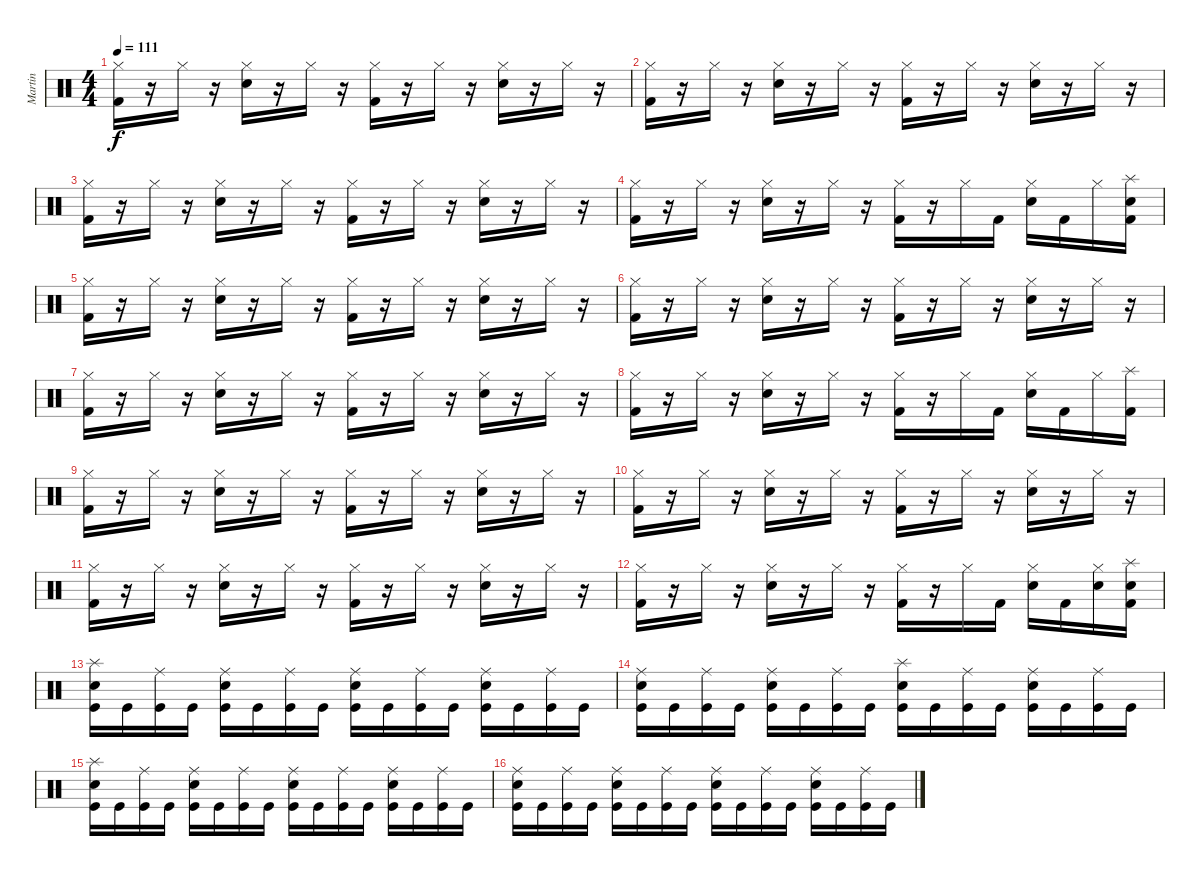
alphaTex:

\track ("Martin" "Martin") {instrument percussion}
\staff {score}
\articulation defaults
\ts (4 4)
\tempo 111
\clef neutral
\ks c
("Kick (hit) 2" "Hi-Hat (closed)").16{dy f} r.16 "Hi-Hat (closed)".16 r.16 ("Electric Snare (hit)" "Hi-Hat (closed)").16 r.16 "Hi-Hat (closed)".16 r.16 ("Kick (hit) 2" "Hi-Hat (closed)").16 r.16 "Hi-Hat (closed)".16 r.16 ("Electric Snare (hit)" "Hi-Hat (closed)").16 r.16 "Hi-Hat (closed)".16 r.16 |
("Kick (hit) 2" "Hi-Hat (closed)").16 r.16 "Hi-Hat (closed)".16 r.16 ("Electric Snare (hit)" "Hi-Hat (closed)").16 r.16 "Hi-Hat (closed)".16 r.16 ("Kick (hit) 2" "Hi-Hat (closed)").16 r.16 "Hi-Hat (closed)".16 r.16 ("Electric Snare (hit)" "Hi-Hat (closed)").16 r.16 "Hi-Hat (closed)".16 r.16 |
("Kick (hit) 2" "Hi-Hat (closed)").16 r.16 "Hi-Hat (closed)".16 r.16 ("Electric Snare (hit)" "Hi-Hat (closed)").16 r.16 "Hi-Hat (closed)".16 r.16 ("Kick (hit) 2" "Hi-Hat (closed)").16 r.16 "Hi-Hat (closed)".16 r.16 ("Electric Snare (hit)" "Hi-Hat (closed)").16 r.16 "Hi-Hat (closed)".16 r.16 |
("Kick (hit) 2" "Hi-Hat (closed)").16 r.16 "Hi-Hat (closed)".16 r.16 ("Electric Snare (hit)" "Hi-Hat (closed)").16 r.16 "Hi-Hat (closed)".16 r.16 ("Kick (hit) 2" "Hi-Hat (closed)").16 r.16 "Hi-Hat (closed)".16 "Kick (hit) 2".16 ("Electric Snare (hit)" "Hi-Hat (closed)").16 "Kick (hit) 2".16 "Hi-Hat (closed)".16 ("Kick (hit) 2" "Electric Snare (hit)" "Splash (hit)").16 |
("Kick (hit) 2" "Hi-Hat (closed)").16 r.16 "Hi-Hat (closed)".16 r.16 ("Electric Snare (hit)" "Hi-Hat (closed)").16 r.16 "Hi-Hat (closed)".16 r.16 ("Kick (hit) 2" "Hi-Hat (closed)").16 r.16 "Hi-Hat (closed)".16 r.16 ("Electric Snare (hit)" "Hi-Hat (closed)").16 r.16 "Hi-Hat (closed)".16 r.16 |
("Kick (hit) 2" "Hi-Hat (closed)").16 r.16 "Hi-Hat (closed)".16 r.16 ("Electric Snare (hit)" "Hi-Hat (closed)").16 r.16 "Hi-Hat (closed)".16 r.16 ("Kick (hit) 2" "Hi-Hat (closed)").16 r.16 "Hi-Hat (closed)".16 r.16 ("Electric Snare (hit)" "Hi-Hat (closed)").16 r.16 "Hi-Hat (closed)".16 r.16 |
("Kick (hit) 2" "Hi-Hat (closed)").16 r.16 "Hi-Hat (closed)".16 r.16 ("Electric Snare (hit)" "Hi-Hat (closed)").16 r.16 "Hi-Hat (closed)".16 r.16 ("Kick (hit) 2" "Hi-Hat (closed)").16 r.16 "Hi-Hat (closed)".16 r.16 ("Electric Snare (hit)" "Hi-Hat (closed)").16 r.16 "Hi-Hat (closed)".16 r.16 |
("Kick (hit) 2" "Hi-Hat (closed)").16 r.16 "Hi-Hat (closed)".16 r.16 ("Electric Snare (hit)" "Hi-Hat (closed)").16 r.16 "Hi-Hat (closed)".16 r.16 ("Kick (hit) 2" "Hi-Hat (closed)").16 r.16 "Hi-Hat (closed)".16 "Kick (hit) 2".16 ("Electric Snare (hit)" "Hi-Hat (closed)").16 "Kick (hit) 2".16 "Hi-Hat (closed)".16 ("Kick (hit) 2" "Splash (hit)").16 |
("Kick (hit) 2" "Hi-Hat (closed)").16 r.16 "Hi-Hat (closed)".16 r.16 ("Electric Snare (hit)" "Hi-Hat (closed)").16 r.16 "Hi-Hat (closed)".16 r.16 ("Kick (hit) 2" "Hi-Hat (closed)").16 r.16 "Hi-Hat (closed)".16 r.16 ("Electric Snare (hit)" "Hi-Hat (closed)").16 r.16 "Hi-Hat (closed)".16 r.16 |
("Kick (hit) 2" "Hi-Hat (closed)").16 r.16 "Hi-Hat (closed)".16 r.16 ("Electric Snare (hit)" "Hi-Hat (closed)").16 r.16 "Hi-Hat (closed)".16 r.16 ("Kick (hit) 2" "Hi-Hat (closed)").16 r.16 "Hi-Hat (closed)".16 r.16 ("Electric Snare (hit)" "Hi-Hat (closed)").16 r.16 "Hi-Hat (closed)".16 r.16 |
("Kick (hit) 2" "Hi-Hat (closed)").16 r.16 "Hi-Hat (closed)".16 r.16 ("Electric Snare (hit)" "Hi-Hat (closed)").16 r.16 "Hi-Hat (closed)".16 r.16 ("Kick (hit) 2" "Hi-Hat (closed)").16 r.16 "Hi-Hat (closed)".16 r.16 ("Electric Snare (hit)" "Hi-Hat (closed)").16 r.16 "Hi-Hat (closed)".16 r.16 |
("Kick (hit) 2" "Hi-Hat (closed)").16 r.16 "Hi-Hat (closed)".16 r.16 ("Electric Snare (hit)" "Hi-Hat (closed)").16 r.16 "Hi-Hat (closed)".16 r.16 ("Kick (hit) 2" "Hi-Hat (closed)").16 r.16 "Hi-Hat (closed)".16 "Kick (hit) 2".16 ("Electric Snare (hit)" "Hi-Hat (closed)").16 "Kick (hit) 2".16 ("Electric Snare (hit)" "Hi-Hat (closed)").16 ("Kick (hit) 2" "Electric Snare (hit)" "Splash (hit)").16 |
("Kick (hit)" "Electric Snare (hit)" "Splash (hit)").16 "Kick (hit)".16 ("Kick (hit)" "Ride (middle)").16 "Kick (hit)".16 ("Kick (hit)" "Electric Snare (hit)" "Ride (middle)").16 "Kick (hit)".16 ("Kick (hit)" "Ride (middle)").16 "Kick (hit)".16 ("Kick (hit)" "Electric Snare (hit)" "Ride (middle)").16 "Kick (hit)".16 ("Kick (hit)" "Ride (middle)").16 "Kick (hit)".16 ("Kick (hit)" "Electric Snare (hit)" "Ride (middle)").16 "Kick (hit)".16 ("Kick (hit)" "Ride (middle)").16 "Kick (hit)".16 |
("Kick (hit)" "Electric Snare (hit)" "Ride (middle)").16 "Kick (hit)".16 ("Kick (hit)" "Ride (middle)").16 "Kick (hit)".16 ("Kick (hit)" "Electric Snare (hit)" "Ride (middle)").16 "Kick (hit)".16 ("Kick (hit)" "Ride (middle)").16 "Kick (hit)".16 ("Kick (hit)" "Electric Snare (hit)" "Splash (hit)").16 "Kick (hit)".16 ("Kick (hit)" "Ride (middle)").16 "Kick (hit)".16 ("Kick (hit)" "Electric Snare (hit)" "Ride (middle)").16 "Kick (hit)".16 ("Kick (hit)" "Ride (middle)").16 "Kick (hit)".16 |
("Kick (hit)" "Electric Snare (hit)" "Splash (hit)").16 "Kick (hit)".16 ("Kick (hit)" "Ride (middle)").16 "Kick (hit)".16 ("Kick (hit)" "Electric Snare (hit)" "Ride (middle)").16 "Kick (hit)".16 ("Kick (hit)" "Ride (middle)").16 "Kick (hit)".16 ("Kick (hit)" "Electric Snare (hit)" "Ride (middle)").16 "Kick (hit)".16 ("Kick (hit)" "Ride (middle)").16 "Kick (hit)".16 ("Kick (hit)" "Electric Snare (hit)" "Ride (middle)").16 "Kick (hit)".16 ("Kick (hit)" "Ride (middle)").16 "Kick (hit)".16 |
("Kick (hit)" "Electric Snare (hit)" "Ride (middle)").16 "Kick (hit)".16 ("Kick (hit)" "Ride (middle)").16 "Kick (hit)".16 ("Kick (hit)" "Electric Snare (hit)" "Ride (middle)").16 "Kick (hit)".16 ("Kick (hit)" "Ride (middle)").16 "Kick (hit)".16 ("Kick (hit)" "Electric Snare (hit)" "Ride (middle)").16 "Kick (hit)".16 ("Kick (hit)" "Ride (middle)").16 "Kick (hit)".16 ("Kick (hit)" "Electric Snare (hit)" "Ride (middle)").16 "Kick (hit)".16 ("Kick (hit)" "Ride (middle)").16 "Kick (hit)".16
